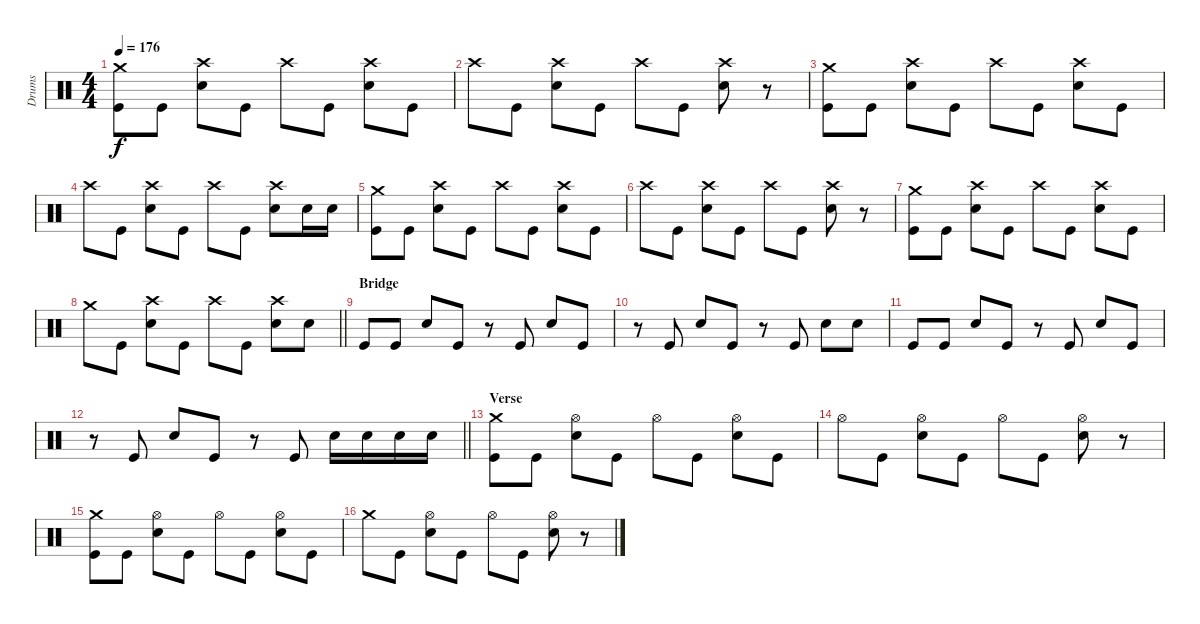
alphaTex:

\track ("Drums" "Drums") {instrument percussion}
\staff {score}
\articulation defaults
\ts (4 4)
\tempo 176
\clef neutral
\ks c
("Crash medium (hit)" "Kick (hit)").8{dy f} "Kick (hit)".8 ("Crash high (hit)" "Electric Snare (hit)").8 "Kick (hit)".8 "Crash high (hit)".8 "Kick (hit)".8 ("Crash high (hit)" "Electric Snare (hit)").8 "Kick (hit)".8 |
"Crash high (hit)".8 "Kick (hit)".8 ("Crash high (hit)" "Electric Snare (hit)").8 "Kick (hit)".8 "Crash high (hit)".8 "Kick (hit)".8 ("Crash high (hit)" "Electric Snare (hit)").8 r.8 |
("Crash medium (hit)" "Kick (hit)").8 "Kick (hit)".8 ("Crash high (hit)" "Electric Snare (hit)").8 "Kick (hit)".8 "Crash high (hit)".8 "Kick (hit)".8 ("Crash high (hit)" "Electric Snare (hit)").8 "Kick (hit)".8 |
"Crash high (hit)".8 "Kick (hit)".8 ("Crash high (hit)" "Electric Snare (hit)").8 "Kick (hit)".8 "Crash high (hit)".8 "Kick (hit)".8 ("Crash high (hit)" "Electric Snare (hit)").8 "Electric Snare (hit)".16 "Electric Snare (hit)".16 |
("Crash medium (hit)" "Kick (hit)").8 "Kick (hit)".8 ("Crash high (hit)" "Electric Snare (hit)").8 "Kick (hit)".8 "Crash high (hit)".8 "Kick (hit)".8 ("Crash high (hit)" "Electric Snare (hit)").8 "Kick (hit)".8 |
"Crash high (hit)".8 "Kick (hit)".8 ("Crash high (hit)" "Electric Snare (hit)").8 "Kick (hit)".8 "Crash high (hit)".8 "Kick (hit)".8 ("Crash high (hit)" "Electric Snare (hit)").8 r.8 |
("Crash medium (hit)" "Kick (hit)").8 "Kick (hit)".8 ("Crash high (hit)" "Electric Snare (hit)").8 "Kick (hit)".8 "Crash high (hit)".8 "Kick (hit)".8 ("Crash high (hit)" "Electric Snare (hit)").8 "Kick (hit)".8 |
\barLineRight lightlight "Crash medium (hit)".8 "Kick (hit)".8
("Crash high (hit)" "Electric Snare (hit)").8 "Kick (hit)".8 "Crash high (hit)".8 "Kick (hit)".8 ("Crash high (hit)" "Electric Snare (hit)").8 "Electric Snare (hit)".8 |
\section ("" "Bridge")
"Kick (hit)".8 "Kick (hit)".8 "Electric Snare (hit)".8 "Kick (hit)".8 r.8 "Kick (hit)".8 "Electric Snare (hit)".8 "Kick (hit)".8 |
r.8 "Kick (hit)".8 "Electric Snare (hit)".8 "Kick (hit)".8 r.8 "Kick (hit)".8 "Electric Snare (hit)".8 "Electric Snare (hit)".8 |
"Kick (hit)".8 "Kick (hit)".8 "Electric Snare (hit)".8 "Kick (hit)".8 r.8 "Kick (hit)".8 "Electric Snare (hit)".8 "Kick (hit)".8 |
\barLineRight lightlight
r.8 "Kick (hit)".8 "Electric Snare (hit)".8 "Kick (hit)".8 r.8 "Kick (hit)".8 "Electric Snare (hit)".16 "Electric Snare (hit)".16 "Electric Snare (hit)".16 "Electric Snare (hit)".16 |
\section ("" "Verse")
("Crash medium (hit)" "Kick (hit)").8 "Kick (hit)".8 ("Hi-Hat (open)" "Electric Snare (hit)").8 "Kick (hit)".8 "Hi-Hat (open)".8 "Kick (hit)".8 ("Hi-Hat (open)" "Electric Snare (hit)").8 "Kick (hit)".8 |
"Hi-Hat (open)".8 "Kick (hit)".8 ("Hi-Hat (open)" "Electric Snare (hit)").8 "Kick (hit)".8 "Hi-Hat (open)".8 "Kick (hit)".8 ("Hi-Hat (open)" "Electric Snare (hit)").8 r.8 |
("Crash medium (hit)" "Kick (hit)").8 "Kick (hit)".8 ("Hi-Hat (open)" "Electric Snare (hit)").8 "Kick (hit)".8 "Hi-Hat (open)".8 "Kick (hit)".8 ("Hi-Hat (open)" "Electric Snare (hit)").8 "Kick (hit)".8 |
"Crash medium (hit)".8 "Kick (hit)".8 ("Hi-Hat (open)" "Electric Snare (hit)").8 "Kick (hit)".8 "Hi-Hat (open)".8 "Kick (hit)".8 ("Hi-Hat (open)" "Electric Snare (hit)").8 r.8
